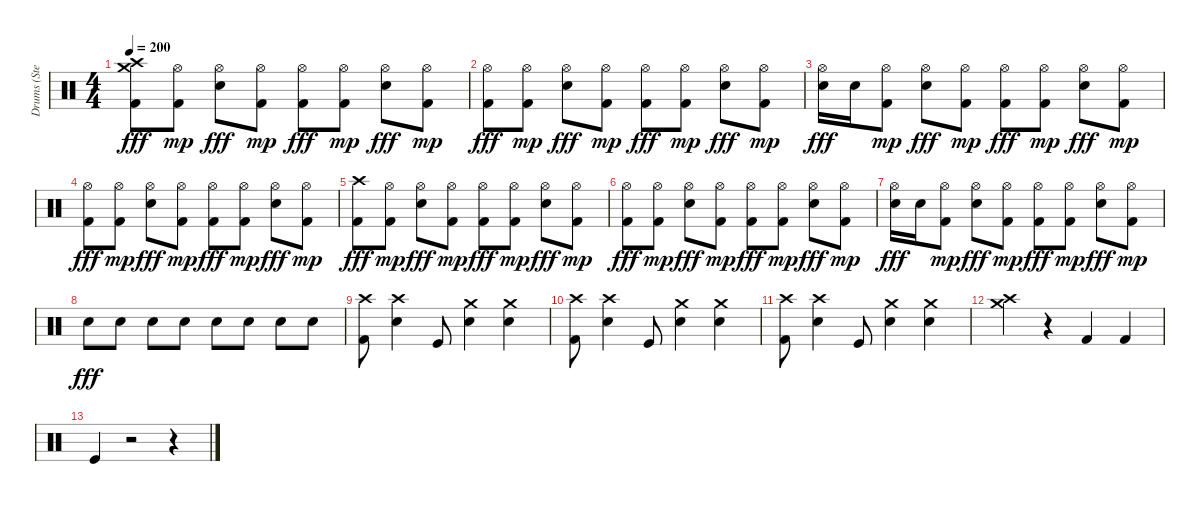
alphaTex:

\track ("Drums (Stevo32)" "Drums (Ste") {instrument percussion}
\staff {score}
\articulation defaults
\ts (4 4)
\tempo 200
\clef neutral
\ks c
("Kick (hit) 2" "Crash high (hit)" "Crash medium (hit)").8{dy fff} ("Kick (hit) 2" "Hi-Hat (open)").8{dy mp} ("Electric Snare (hit)" "Hi-Hat (open)").8{dy fff} ("Kick (hit) 2" "Hi-Hat (open)").8{dy mp} ("Kick (hit) 2" "Hi-Hat (open)").8{dy fff} ("Kick (hit) 2" "Hi-Hat (open)").8{dy mp} ("Electric Snare (hit)" "Hi-Hat (open)").8{dy fff} ("Kick (hit) 2" "Hi-Hat (open)").8{dy mp} |
("Kick (hit) 2" "Hi-Hat (open)").8{dy fff} ("Kick (hit) 2" "Hi-Hat (open)").8{dy mp} ("Electric Snare (hit)" "Hi-Hat (open)").8{dy fff} ("Kick (hit) 2" "Hi-Hat (open)").8{dy mp} ("Kick (hit) 2" "Hi-Hat (open)").8{dy fff} ("Kick (hit) 2" "Hi-Hat (open)").8{dy mp} ("Electric Snare (hit)" "Hi-Hat (open)").8{dy fff} ("Kick (hit) 2" "Hi-Hat (open)").8{dy mp} |
("Electric Snare (hit)" "Hi-Hat (open)").16{dy fff} "Electric Snare (hit)".16 ("Kick (hit) 2" "Hi-Hat (open)").8{dy mp} ("Electric Snare (hit)" "Hi-Hat (open)").8{dy fff} ("Kick (hit) 2" "Hi-Hat (open)").8{dy mp} ("Kick (hit) 2" "Hi-Hat (open)").8{dy fff} ("Kick (hit) 2" "Hi-Hat (open)").8{dy mp} ("Electric Snare (hit)" "Hi-Hat (open)").8{dy fff} ("Kick (hit) 2" "Hi-Hat (open)").8{dy mp} |
("Kick (hit) 2" "Hi-Hat (open)").8{dy fff} ("Kick (hit) 2" "Hi-Hat (open)").8{dy mp} ("Electric Snare (hit)" "Hi-Hat (open)").8{dy fff} ("Kick (hit) 2" "Hi-Hat (open)").8{dy mp} ("Kick (hit) 2" "Hi-Hat (open)").8{dy fff} ("Kick (hit) 2" "Hi-Hat (open)").8{dy mp} ("Electric Snare (hit)" "Hi-Hat (open)").8{dy fff} ("Kick (hit) 2" "Hi-Hat (open)").8{dy mp} |
("Kick (hit) 2" "Crash high (hit)").8{dy fff} ("Kick (hit) 2" "Hi-Hat (open)").8{dy mp} ("Electric Snare (hit)" "Hi-Hat (open)").8{dy fff} ("Kick (hit) 2" "Hi-Hat (open)").8{dy mp} ("Kick (hit) 2" "Hi-Hat (open)").8{dy fff} ("Kick (hit) 2" "Hi-Hat (open)").8{dy mp} ("Electric Snare (hit)" "Hi-Hat (open)").8{dy fff} ("Kick (hit) 2" "Hi-Hat (open)").8{dy mp} |
("Kick (hit) 2" "Hi-Hat (open)").8{dy fff} ("Kick (hit) 2" "Hi-Hat (open)").8{dy mp} ("Electric Snare (hit)" "Hi-Hat (open)").8{dy fff} ("Kick (hit) 2" "Hi-Hat (open)").8{dy mp} ("Kick (hit) 2" "Hi-Hat (open)").8{dy fff} ("Kick (hit) 2" "Hi-Hat (open)").8{dy mp} ("Electric Snare (hit)" "Hi-Hat (open)").8{dy fff} ("Kick (hit) 2" "Hi-Hat (open)").8{dy mp} |
("Electric Snare (hit)" "Hi-Hat (open)").16{dy fff} "Electric Snare (hit)".16 ("Kick (hit) 2" "Hi-Hat (open)").8{dy mp} ("Electric Snare (hit)" "Hi-Hat (open)").8{dy fff} ("Kick (hit) 2" "Hi-Hat (open)").8{dy mp} ("Kick (hit) 2" "Hi-Hat (open)").8{dy fff} ("Kick (hit) 2" "Hi-Hat (open)").8{dy mp} ("Electric Snare (hit)" "Hi-Hat (open)").8{dy fff} ("Kick (hit) 2" "Hi-Hat (open)").8{dy mp} |
"Electric Snare (hit)".8{dy fff} "Electric Snare (hit)".8 "Electric Snare (hit)".8 "Electric Snare (hit)".8 "Electric Snare (hit)".8 "Electric Snare (hit)".8 "Electric Snare (hit)".8 "Electric Snare (hit)".8 |
("Kick (hit) 2" "Crash high (hit)").8 ("Electric Snare (hit)" "Crash high (hit)").4 "Kick (hit)".8 ("Electric Snare (hit)" "Crash medium (hit)").4 ("Electric Snare (hit)" "Crash medium (hit)").4 |
("Kick (hit) 2" "Crash high (hit)").8 ("Electric Snare (hit)" "Crash high (hit)").4 "Kick (hit)".8 ("Electric Snare (hit)" "Crash medium (hit)").4 ("Electric Snare (hit)" "Crash medium (hit)").4 |
("Kick (hit) 2" "Crash high (hit)").8 ("Electric Snare (hit)" "Crash high (hit)").4 "Kick (hit)".8 ("Electric Snare (hit)" "Crash medium (hit)").4 ("Electric Snare (hit)" "Crash medium (hit)").4 |
("Crash high (hit)" "Crash medium (hit)").4 r.4 "Kick (hit) 2".4 "Kick (hit) 2".4 |
"Kick (hit)".4 r.2 r.4
